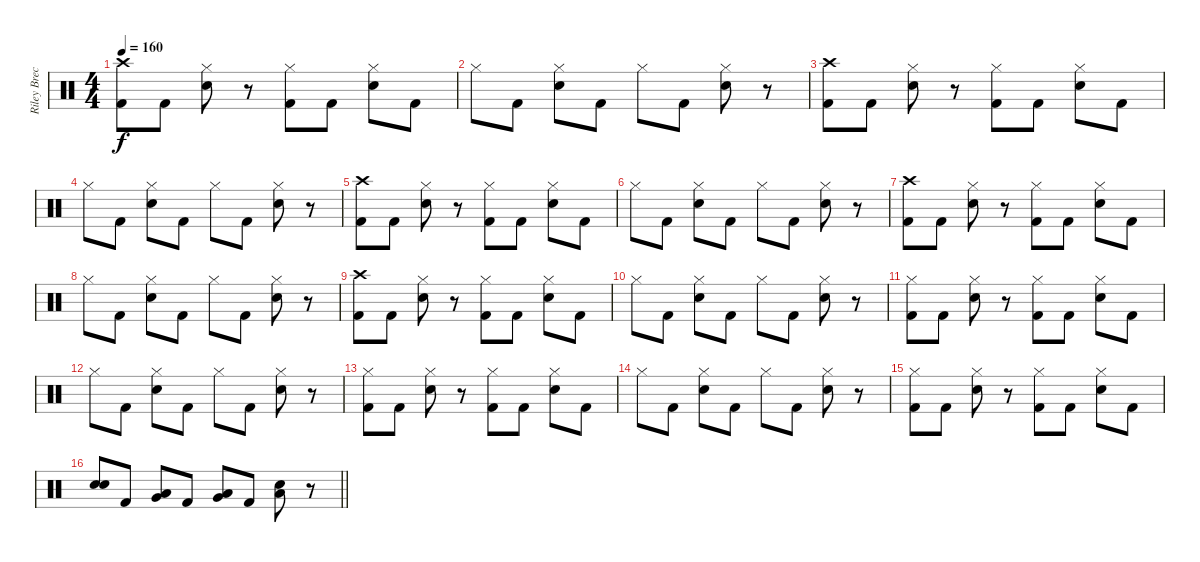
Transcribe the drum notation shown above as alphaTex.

\track ("Riley Breckenridge" "Riley Brec") {instrument percussion}
\staff {score}
\articulation defaults
\ts (4 4)
\tempo 160
\clef neutral
\ks c
("Kick (hit) 2" "Crash high (hit)").8{dy f} "Kick (hit) 2".8 ("Electric Snare (hit)" "Hi-Hat (closed)").8 r.8 ("Kick (hit) 2" "Hi-Hat (closed)").8 "Kick (hit) 2".8 ("Electric Snare (hit)" "Hi-Hat (closed)").8 "Kick (hit) 2".8 |
"Hi-Hat (closed)".8 "Kick (hit) 2".8 ("Electric Snare (hit)" "Hi-Hat (closed)").8 "Kick (hit) 2".8 "Hi-Hat (closed)".8 "Kick (hit) 2".8 ("Electric Snare (hit)" "Hi-Hat (closed)").8 r.8 |
("Kick (hit) 2" "Crash high (hit)").8 "Kick (hit) 2".8 ("Electric Snare (hit)" "Hi-Hat (closed)").8 r.8 ("Kick (hit) 2" "Hi-Hat (closed)").8 "Kick (hit) 2".8 ("Electric Snare (hit)" "Hi-Hat (closed)").8 "Kick (hit) 2".8 |
"Hi-Hat (closed)".8 "Kick (hit) 2".8 ("Electric Snare (hit)" "Hi-Hat (closed)").8 "Kick (hit) 2".8 "Hi-Hat (closed)".8 "Kick (hit) 2".8 ("Electric Snare (hit)" "Hi-Hat (closed)").8 r.8 |
("Kick (hit) 2" "Crash high (hit)").8 "Kick (hit) 2".8 ("Electric Snare (hit)" "Hi-Hat (closed)").8 r.8 ("Kick (hit) 2" "Hi-Hat (closed)").8 "Kick (hit) 2".8 ("Electric Snare (hit)" "Hi-Hat (closed)").8 "Kick (hit) 2".8 |
"Hi-Hat (closed)".8 "Kick (hit) 2".8 ("Electric Snare (hit)" "Hi-Hat (closed)").8 "Kick (hit) 2".8 "Hi-Hat (closed)".8 "Kick (hit) 2".8 ("Electric Snare (hit)" "Hi-Hat (closed)").8 r.8 |
("Kick (hit) 2" "Crash high (hit)").8 "Kick (hit) 2".8 ("Electric Snare (hit)" "Hi-Hat (closed)").8 r.8 ("Kick (hit) 2" "Hi-Hat (closed)").8 "Kick (hit) 2".8 ("Electric Snare (hit)" "Hi-Hat (closed)").8 "Kick (hit) 2".8 |
"Hi-Hat (closed)".8 "Kick (hit) 2".8 ("Electric Snare (hit)" "Hi-Hat (closed)").8 "Kick (hit) 2".8 "Hi-Hat (closed)".8 "Kick (hit) 2".8 ("Electric Snare (hit)" "Hi-Hat (closed)").8 r.8 |
("Kick (hit) 2" "Crash high (hit)").8 "Kick (hit) 2".8 ("Electric Snare (hit)" "Hi-Hat (closed)").8 r.8 ("Kick (hit) 2" "Hi-Hat (closed)").8 "Kick (hit) 2".8 ("Electric Snare (hit)" "Hi-Hat (closed)").8 "Kick (hit) 2".8 |
"Hi-Hat (closed)".8 "Kick (hit) 2".8 ("Electric Snare (hit)" "Hi-Hat (closed)").8 "Kick (hit) 2".8 "Hi-Hat (closed)".8 "Kick (hit) 2".8 ("Electric Snare (hit)" "Hi-Hat (closed)").8 r.8 |
("Kick (hit) 2" "Hi-Hat (closed)").8 "Kick (hit) 2".8 ("Electric Snare (hit)" "Hi-Hat (closed)").8 r.8 ("Kick (hit) 2" "Hi-Hat (closed)").8 "Kick (hit) 2".8 ("Electric Snare (hit)" "Hi-Hat (closed)").8 "Kick (hit) 2".8 |
"Hi-Hat (closed)".8 "Kick (hit) 2".8 ("Electric Snare (hit)" "Hi-Hat (closed)").8 "Kick (hit) 2".8 "Hi-Hat (closed)".8 "Kick (hit) 2".8 ("Electric Snare (hit)" "Hi-Hat (closed)").8 r.8 |
("Kick (hit) 2" "Hi-Hat (closed)").8 "Kick (hit) 2".8 ("Electric Snare (hit)" "Hi-Hat (closed)").8 r.8 ("Kick (hit) 2" "Hi-Hat (closed)").8 "Kick (hit) 2".8 ("Electric Snare (hit)" "Hi-Hat (closed)").8 "Kick (hit) 2".8 |
"Hi-Hat (closed)".8 "Kick (hit) 2".8 ("Electric Snare (hit)" "Hi-Hat (closed)").8 "Kick (hit) 2".8 "Hi-Hat (closed)".8 "Kick (hit) 2".8 ("Electric Snare (hit)" "Hi-Hat (closed)").8 r.8 |
("Kick (hit) 2" "Hi-Hat (closed)").8 "Kick (hit) 2".8 ("Electric Snare (hit)" "Hi-Hat (closed)").8 r.8 ("Kick (hit) 2" "Hi-Hat (closed)").8 "Kick (hit) 2".8 ("Electric Snare (hit)" "Hi-Hat (closed)").8 "Kick (hit) 2".8 |
\barLineRight lightlight
("Electric Snare (hit)" "Electric Snare (hit)").8 "Kick (hit) 2".8 ("Low Tom (hit)" "Very Low Tom (hit)").8 "Kick (hit) 2".8 ("Very Low Tom (hit)" "Low Tom (hit)").8 "Kick (hit) 2".8 ("Low Floor Tom (hit)" "Electric Snare (hit)").8 r.8
